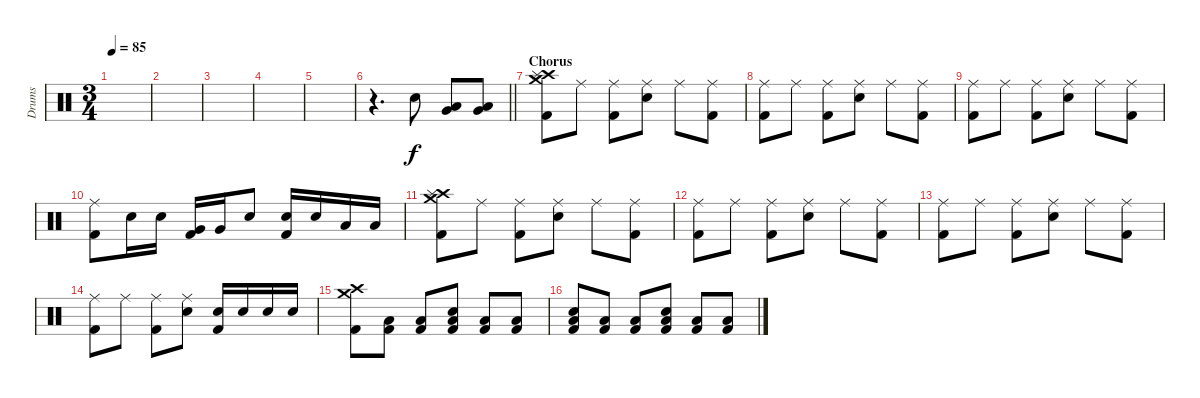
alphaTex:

\track ("Drums" "Drums") {instrument percussion}
\staff {score}
\articulation defaults
\ts (3 4)
\tempo 85
\clef neutral
\ks c
|
|
|
|
|
\barLineRight lightlight
r.4{d} "Electric Snare (hit)".8 ("Low Floor Tom (hit)" "Very Low Tom (hit)").8 ("Very Low Tom (hit)" "Low Tom (hit)").8 |
\section ("" "Chorus")
("Crash high (hit)" "Crash medium (hit)" "Splash (hit)" "Kick (hit) 2").8 "Ride (middle)".8 ("Ride (middle)" "Kick (hit) 2").8 ("Ride (middle)" "Electric Snare (hit)").8 "Ride (middle)".8 ("Ride (middle)" "Kick (hit) 2").8 |
("Ride (middle)" "Kick (hit) 2").8 "Ride (middle)".8 ("Ride (middle)" "Kick (hit) 2").8 ("Ride (middle)" "Electric Snare (hit)").8 "Ride (middle)".8 ("Ride (middle)" "Kick (hit) 2").8 |
("Ride (middle)" "Kick (hit) 2").8 "Ride (middle)".8 ("Ride (middle)" "Kick (hit) 2").8 ("Ride (middle)" "Electric Snare (hit)").8 "Ride (middle)".8 ("Ride (middle)" "Kick (hit) 2").8 |
("Ride (middle)" "Kick (hit) 2").8 "Electric Snare (hit)".16 "Electric Snare (hit)".16 ("Very Low Tom (hit)" "Kick (hit) 2").16 "Very Low Tom (hit)".16 "Electric Snare (hit)".8 ("Electric Snare (hit)" "Kick (hit) 2").16 "Electric Snare (hit)".16 "Low Floor Tom (hit)".16 "Low Floor Tom (hit)".16 |
("Crash high (hit)" "Crash medium (hit)" "Splash (hit)" "Kick (hit) 2").8 "Ride (middle)".8 ("Ride (middle)" "Kick (hit) 2").8 ("Ride (middle)" "Electric Snare (hit)").8 "Ride (middle)".8 ("Ride (middle)" "Kick (hit) 2").8 |
("Ride (middle)" "Kick (hit) 2").8 "Ride (middle)".8 ("Ride (middle)" "Kick (hit) 2").8 ("Ride (middle)" "Electric Snare (hit)").8 "Ride (middle)".8 ("Ride (middle)" "Kick (hit) 2").8 |
("Ride (middle)" "Kick (hit) 2").8 "Ride (middle)".8 ("Ride (middle)" "Kick (hit) 2").8 ("Ride (middle)" "Electric Snare (hit)").8 "Ride (middle)".8 ("Ride (middle)" "Kick (hit) 2").8 |
("Ride (middle)" "Kick (hit) 2").8 "Ride (middle)".8 ("Ride (middle)" "Kick (hit) 2").8 ("Ride (middle)" "Electric Snare (hit)").8 ("Electric Snare (hit)" "Kick (hit) 2").16 "Electric Snare (hit)".16 "Electric Snare (hit)".16 "Electric Snare (hit)".16 |
("Crash high (hit)" "Crash medium (hit)" "Kick (hit) 2").8 ("Low Floor Tom (hit)" "Kick (hit) 2").8 ("Low Floor Tom (hit)" "Kick (hit) 2").8 ("Low Floor Tom (hit)" "Electric Snare (hit)" "Kick (hit) 2").8 ("Low Floor Tom (hit)" "Kick (hit) 2").8 ("Low Floor Tom (hit)" "Kick (hit) 2").8 |
("Low Floor Tom (hit)" "Electric Snare (hit)" "Kick (hit) 2").8 ("Low Floor Tom (hit)" "Kick (hit) 2").8 ("Low Floor Tom (hit)" "Kick (hit) 2").8 ("Low Floor Tom (hit)" "Electric Snare (hit)" "Kick (hit) 2").8 ("Low Floor Tom (hit)" "Kick (hit) 2").8 ("Low Floor Tom (hit)" "Kick (hit) 2").8
